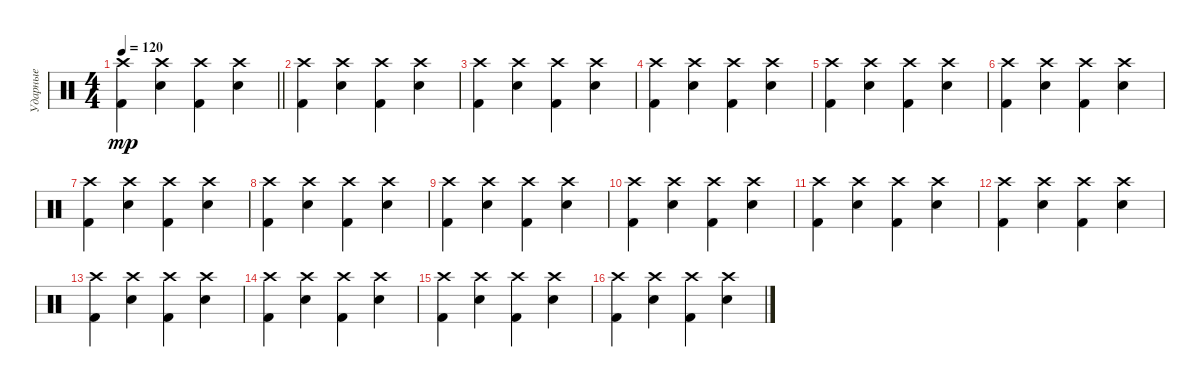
\track ("Ударные" "Ударные") {instrument percussion}
\staff {score}
\articulation defaults
\ts (4 4)
\tempo 120
\clef neutral
\barLineRight lightlight
\ks c
("Crash high (hit)" "Kick (hit) 2").4{dy mp} ("Crash high (hit)" "Snare (hit) 2").4 ("Crash high (hit)" "Kick (hit) 2").4 ("Crash high (hit)" "Snare (hit) 2").4 |
("Crash high (hit)" "Kick (hit) 2").4 ("Crash high (hit)" "Snare (hit) 2").4 ("Crash high (hit)" "Kick (hit) 2").4 ("Crash high (hit)" "Snare (hit) 2").4 |
("Crash high (hit)" "Kick (hit) 2").4 ("Crash high (hit)" "Snare (hit) 2").4 ("Crash high (hit)" "Kick (hit) 2").4 ("Crash high (hit)" "Snare (hit) 2").4 |
("Crash high (hit)" "Kick (hit) 2").4 ("Crash high (hit)" "Snare (hit) 2").4 ("Crash high (hit)" "Kick (hit) 2").4 ("Crash high (hit)" "Snare (hit) 2").4 |
("Crash high (hit)" "Kick (hit) 2").4 ("Crash high (hit)" "Snare (hit) 2").4 ("Crash high (hit)" "Kick (hit) 2").4 ("Crash high (hit)" "Snare (hit) 2").4 |
("Crash high (hit)" "Kick (hit) 2").4 ("Crash high (hit)" "Snare (hit) 2").4 ("Crash high (hit)" "Kick (hit) 2").4 ("Crash high (hit)" "Snare (hit) 2").4 |
("Crash high (hit)" "Kick (hit) 2").4 ("Crash high (hit)" "Snare (hit) 2").4 ("Crash high (hit)" "Kick (hit) 2").4 ("Crash high (hit)" "Snare (hit) 2").4 |
("Crash high (hit)" "Kick (hit) 2").4 ("Crash high (hit)" "Snare (hit) 2").4 ("Crash high (hit)" "Kick (hit) 2").4 ("Crash high (hit)" "Snare (hit) 2").4 |
("Crash high (hit)" "Kick (hit) 2").4 ("Crash high (hit)" "Snare (hit) 2").4 ("Crash high (hit)" "Kick (hit) 2").4 ("Crash high (hit)" "Snare (hit) 2").4 |
("Crash high (hit)" "Kick (hit) 2").4 ("Crash high (hit)" "Snare (hit) 2").4 ("Crash high (hit)" "Kick (hit) 2").4 ("Crash high (hit)" "Snare (hit) 2").4 |
("Crash high (hit)" "Kick (hit) 2").4 ("Crash high (hit)" "Snare (hit) 2").4 ("Crash high (hit)" "Kick (hit) 2").4 ("Crash high (hit)" "Snare (hit) 2").4 |
("Crash high (hit)" "Kick (hit) 2").4 ("Crash high (hit)" "Snare (hit) 2").4 ("Crash high (hit)" "Kick (hit) 2").4 ("Crash high (hit)" "Snare (hit) 2").4 |
("Crash high (hit)" "Kick (hit) 2").4 ("Crash high (hit)" "Snare (hit) 2").4 ("Crash high (hit)" "Kick (hit) 2").4 ("Crash high (hit)" "Snare (hit) 2").4 |
("Crash high (hit)" "Kick (hit) 2").4 ("Crash high (hit)" "Snare (hit) 2").4 ("Crash high (hit)" "Kick (hit) 2").4 ("Crash high (hit)" "Snare (hit) 2").4 |
("Crash high (hit)" "Kick (hit) 2").4 ("Crash high (hit)" "Snare (hit) 2").4 ("Crash high (hit)" "Kick (hit) 2").4 ("Crash high (hit)" "Snare (hit) 2").4 |
("Crash high (hit)" "Kick (hit) 2").4 ("Crash high (hit)" "Snare (hit) 2").4 ("Crash high (hit)" "Kick (hit) 2").4 ("Crash high (hit)" "Snare (hit) 2").4
